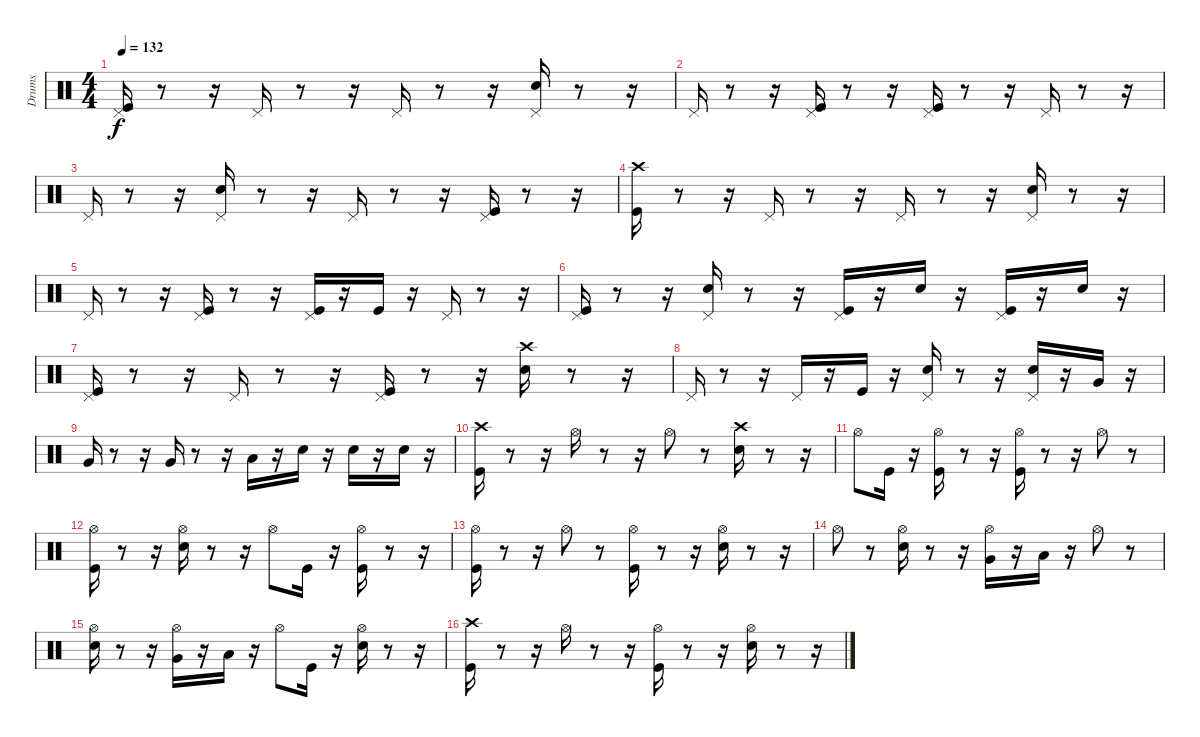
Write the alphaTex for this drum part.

\track ("Drums" "Drums") {instrument percussion}
\staff {score}
\articulation defaults
\ts (4 4)
\tempo 132
\clef neutral
\ks c
("Pedal Hi-Hat (hit)" "Kick (hit)").16{dy f} r.8 r.16 "Pedal Hi-Hat (hit)".16 r.8 r.16 "Pedal Hi-Hat (hit)".16 r.8 r.16 ("Pedal Hi-Hat (hit)" "Snare (hit) 2").16 r.8 r.16 |
"Pedal Hi-Hat (hit)".16 r.8 r.16 ("Pedal Hi-Hat (hit)" "Kick (hit)").16 r.8 r.16 ("Pedal Hi-Hat (hit)" "Kick (hit)").16 r.8 r.16 "Pedal Hi-Hat (hit)".16 r.8 r.16 |
"Pedal Hi-Hat (hit)".16 r.8 r.16 ("Pedal Hi-Hat (hit)" "Snare (hit) 2").16 r.8 r.16 "Pedal Hi-Hat (hit)".16 r.8 r.16 ("Pedal Hi-Hat (hit)" "Kick (hit)").16 r.8 r.16 |
("Crash high (hit)" "Kick (hit)").16 r.8 r.16 "Pedal Hi-Hat (hit)".16 r.8 r.16 "Pedal Hi-Hat (hit)".16 r.8 r.16 ("Pedal Hi-Hat (hit)" "Snare (hit) 2").16 r.8 r.16 |
"Pedal Hi-Hat (hit)".16 r.8 r.16 ("Pedal Hi-Hat (hit)" "Kick (hit)").16 r.8 r.16 ("Pedal Hi-Hat (hit)" "Kick (hit)").16 r.16 "Kick (hit)".16 r.16 "Pedal Hi-Hat (hit)".16 r.8 r.16 |
("Pedal Hi-Hat (hit)" "Kick (hit)").16 r.8 r.16 ("Pedal Hi-Hat (hit)" "Snare (hit) 2").16 r.8 r.16 ("Pedal Hi-Hat (hit)" "Kick (hit)").16 r.16 "Snare (hit) 2".16 r.16 ("Pedal Hi-Hat (hit)" "Kick (hit)").16 r.16 "Snare (hit) 2".16 r.16 |
("Kick (hit)" "Pedal Hi-Hat (hit)").16 r.8 r.16 "Pedal Hi-Hat (hit)".16 r.8 r.16 ("Pedal Hi-Hat (hit)" "Kick (hit)").16 r.8 r.16 ("Snare (hit) 2" "Crash high (hit)").16 r.8 r.16 |
"Pedal Hi-Hat (hit)".16 r.8 r.16 "Pedal Hi-Hat (hit)".16 r.16 "Kick (hit)".16 r.16 ("Pedal Hi-Hat (hit)" "Snare (hit) 2").16 r.8 r.16 ("Pedal Hi-Hat (hit)" "Snare (hit) 2").16 r.16 "Very Low Tom (hit)".16 r.16 |
"Very Low Tom (hit)".16 r.8 r.16 "Very Low Tom (hit)".16 r.8 r.16 "Low Floor Tom (hit)".16 r.16 "Snare (hit) 2".16 r.16 "Snare (hit) 2".16 r.16 "Snare (hit) 2".16 r.16 |
("Kick (hit)" "Crash high (hit)").16 r.8 r.16 "Hi-Hat (open)".16 r.8 r.16 "Hi-Hat (open)".8 r.8 ("Snare (hit) 2" "Crash high (hit)").16 r.8 r.16 |
"Hi-Hat (open)".8 "Kick (hit)".16 r.16 ("Hi-Hat (open)" "Kick (hit)").16 r.8 r.16 ("Kick (hit)" "Hi-Hat (open)").16 r.8 r.16 "Hi-Hat (open)".8 r.8 |
("Hi-Hat (open)" "Kick (hit)").16 r.8 r.16 ("Hi-Hat (open)" "Snare (hit) 2").16 r.8 r.16 "Hi-Hat (open)".8 "Kick (hit)".16 r.16 ("Hi-Hat (open)" "Kick (hit)").16 r.8 r.16 |
("Hi-Hat (open)" "Kick (hit)").16 r.8 r.16 "Hi-Hat (open)".8 r.8 ("Kick (hit)" "Hi-Hat (open)").16 r.8 r.16 ("Hi-Hat (open)" "Snare (hit) 2").16 r.8 r.16 |
"Hi-Hat (open)".8 r.8 ("Snare (hit) 2" "Hi-Hat (open)").16 r.8 r.16 ("Hi-Hat (open)" "Very Low Tom (hit)").16 r.16 "Low Floor Tom (hit)".16 r.16 "Hi-Hat (open)".8 r.8 |
("Hi-Hat (open)" "Snare (hit) 2").16 r.8 r.16 ("Hi-Hat (open)" "Very Low Tom (hit)").16 r.16 "Low Floor Tom (hit)".16 r.16 "Hi-Hat (open)".8 "Kick (hit)".16 r.16 ("Hi-Hat (open)" "Snare (hit) 2").16 r.8 r.16 |
("Kick (hit)" "Crash high (hit)").16 r.8 r.16 "Hi-Hat (open)".16 r.8 r.16 ("Hi-Hat (open)" "Kick (hit)").16 r.8 r.16 ("Snare (hit) 2" "Hi-Hat (open)").16 r.8 r.16
